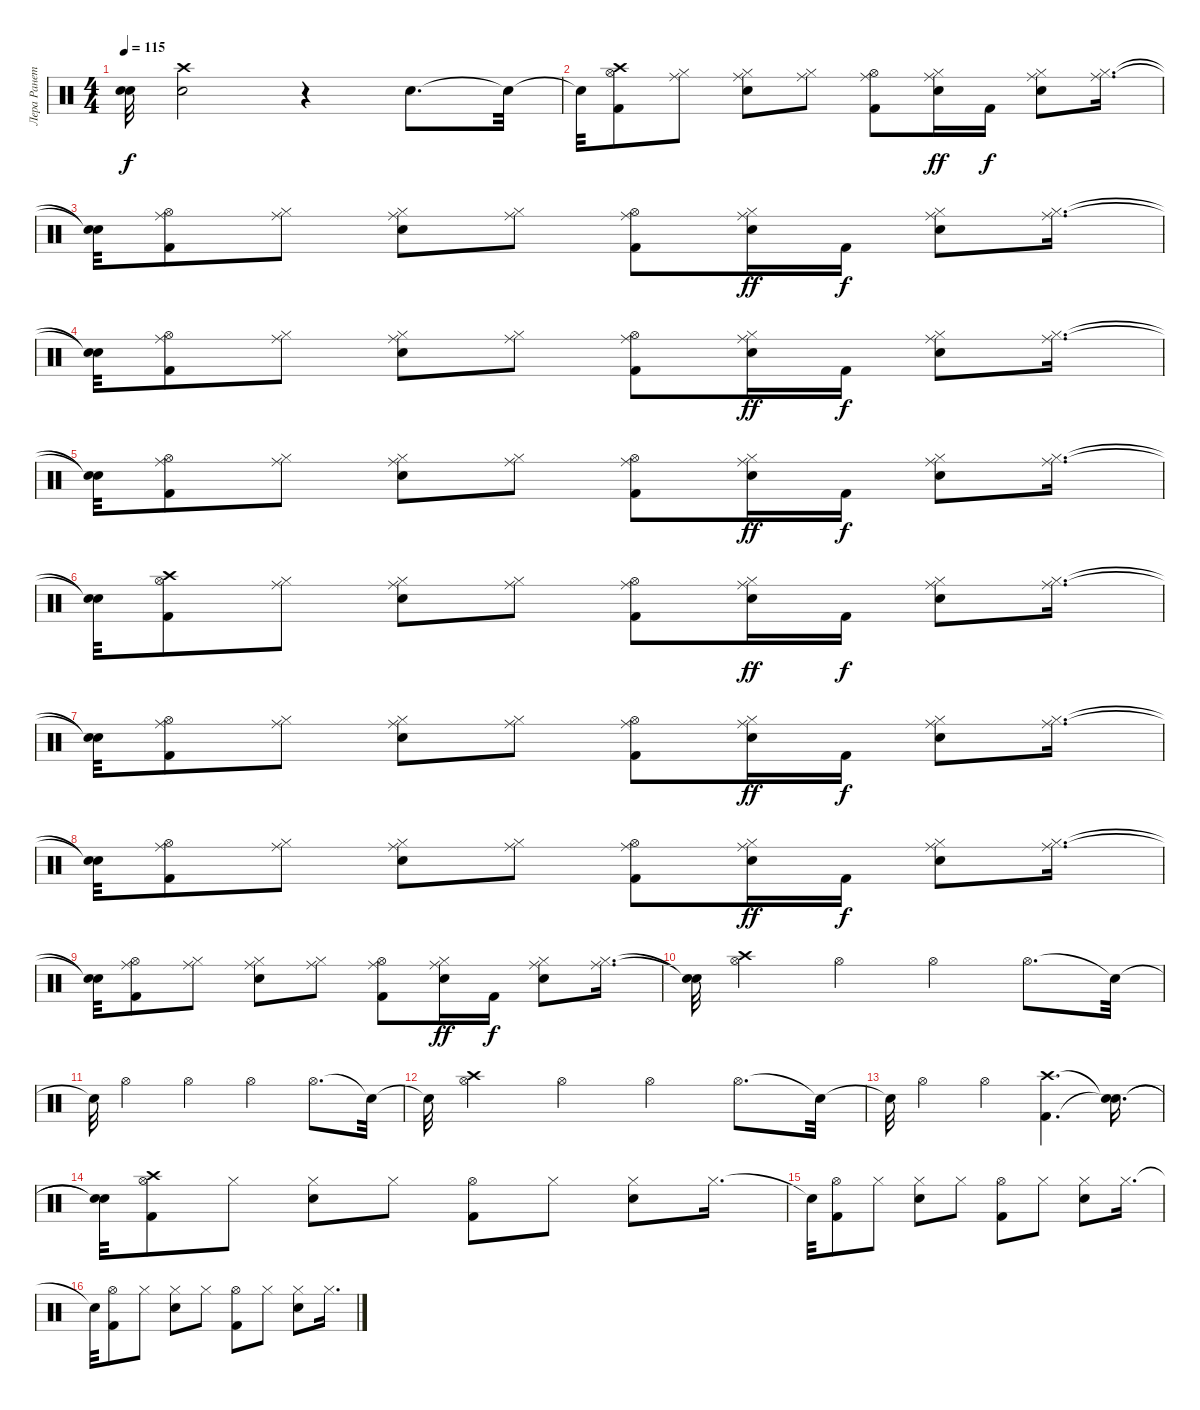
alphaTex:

\track ("Лера Ранетка" "Лера Ранет") {instrument percussion}
\staff {score}
\articulation defaults
\ts (4 4)
\tempo 115
\clef neutral
\ks c
("Snare (hit)"{t} "Snare (hit)"{t}).32{dy f} ("Electric Snare (hit)" "Crash high (hit)").2 r.4 "Electric Snare (hit)".8{d} "Snare (hit)"{t}.32 |
"Snare (hit)"{t}.32 ("Hi-Hat (open)" "Kick (hit) 2" "Crash high (hit)").8 ("Hi-Hat (closed)" "Ride (middle)").8 ("Hi-Hat (closed)" "Electric Snare (hit)" "Ride (middle)").8 ("Hi-Hat (closed)" "Ride (middle)").8 ("Hi-Hat (open)" "Kick (hit) 2" "Ride (middle)").8 ("Hi-Hat (closed)" "Electric Snare (hit)" "Ride (middle)").16{dy ff} "Kick (hit) 2".16{dy f} ("Hi-Hat (closed)" "Electric Snare (hit)" "Ride (middle)").8 ("Hi-Hat (closed)" "Ride (middle)").16{d} |
("Snare (hit)"{t} "Snare (hit)"{t}).32 ("Hi-Hat (open)" "Kick (hit) 2" "Ride (middle)").8 ("Hi-Hat (closed)" "Ride (middle)").8 ("Hi-Hat (closed)" "Electric Snare (hit)" "Ride (middle)").8 ("Hi-Hat (closed)" "Ride (middle)").8 ("Hi-Hat (open)" "Kick (hit) 2" "Ride (middle)").8 ("Hi-Hat (closed)" "Electric Snare (hit)" "Ride (middle)").16{dy ff} "Kick (hit) 2".16{dy f} ("Hi-Hat (closed)" "Electric Snare (hit)" "Ride (middle)").8 ("Hi-Hat (closed)" "Ride (middle)").16{d} |
("Snare (hit)"{t} "Snare (hit)"{t}).32 ("Hi-Hat (open)" "Kick (hit) 2" "Ride (middle)").8 ("Hi-Hat (closed)" "Ride (middle)").8 ("Hi-Hat (closed)" "Electric Snare (hit)" "Ride (middle)").8 ("Hi-Hat (closed)" "Ride (middle)").8 ("Hi-Hat (open)" "Kick (hit) 2" "Ride (middle)").8 ("Hi-Hat (closed)" "Electric Snare (hit)" "Ride (middle)").16{dy ff} "Kick (hit) 2".16{dy f} ("Hi-Hat (closed)" "Electric Snare (hit)" "Ride (middle)").8 ("Hi-Hat (closed)" "Ride (middle)").16{d} |
("Snare (hit)"{t} "Snare (hit)"{t}).32 ("Hi-Hat (open)" "Kick (hit) 2" "Ride (middle)").8 ("Hi-Hat (closed)" "Ride (middle)").8 ("Hi-Hat (closed)" "Electric Snare (hit)" "Ride (middle)").8 ("Hi-Hat (closed)" "Ride (middle)").8 ("Hi-Hat (open)" "Kick (hit) 2" "Ride (middle)").8 ("Hi-Hat (closed)" "Electric Snare (hit)" "Ride (middle)").16{dy ff} "Kick (hit) 2".16{dy f} ("Hi-Hat (closed)" "Electric Snare (hit)" "Ride (middle)").8 ("Hi-Hat (closed)" "Ride (middle)").16{d} |
("Snare (hit)"{t} "Snare (hit)"{t}).32 ("Hi-Hat (open)" "Kick (hit) 2" "Crash high (hit)").8 ("Hi-Hat (closed)" "Ride (middle)").8 ("Hi-Hat (closed)" "Electric Snare (hit)" "Ride (middle)").8 ("Hi-Hat (closed)" "Ride (middle)").8 ("Hi-Hat (open)" "Kick (hit) 2" "Ride (middle)").8 ("Hi-Hat (closed)" "Electric Snare (hit)" "Ride (middle)").16{dy ff} "Kick (hit) 2".16{dy f} ("Hi-Hat (closed)" "Electric Snare (hit)" "Ride (middle)").8 ("Hi-Hat (closed)" "Ride (middle)").16{d} |
("Snare (hit)"{t} "Snare (hit)"{t}).32 ("Hi-Hat (open)" "Kick (hit) 2" "Ride (middle)").8 ("Hi-Hat (closed)" "Ride (middle)").8 ("Hi-Hat (closed)" "Electric Snare (hit)" "Ride (middle)").8 ("Hi-Hat (closed)" "Ride (middle)").8 ("Hi-Hat (open)" "Kick (hit) 2" "Ride (middle)").8 ("Hi-Hat (closed)" "Electric Snare (hit)" "Ride (middle)").16{dy ff} "Kick (hit) 2".16{dy f} ("Hi-Hat (closed)" "Electric Snare (hit)" "Ride (middle)").8 ("Hi-Hat (closed)" "Ride (middle)").16{d} |
("Snare (hit)"{t} "Snare (hit)"{t}).32 ("Hi-Hat (open)" "Kick (hit) 2" "Ride (middle)").8 ("Hi-Hat (closed)" "Ride (middle)").8 ("Hi-Hat (closed)" "Electric Snare (hit)" "Ride (middle)").8 ("Hi-Hat (closed)" "Ride (middle)").8 ("Hi-Hat (open)" "Kick (hit) 2" "Ride (middle)").8 ("Hi-Hat (closed)" "Electric Snare (hit)" "Ride (middle)").16{dy ff} "Kick (hit) 2".16{dy f} ("Hi-Hat (closed)" "Electric Snare (hit)" "Ride (middle)").8 ("Hi-Hat (closed)" "Ride (middle)").16{d} |
("Snare (hit)"{t} "Snare (hit)"{t}).32 ("Hi-Hat (open)" "Kick (hit) 2" "Ride (middle)").8 ("Hi-Hat (closed)" "Ride (middle)").8 ("Hi-Hat (closed)" "Electric Snare (hit)" "Ride (middle)").8 ("Hi-Hat (closed)" "Ride (middle)").8 ("Hi-Hat (open)" "Kick (hit) 2" "Ride (middle)").8 ("Hi-Hat (closed)" "Electric Snare (hit)" "Ride (middle)").16{dy ff} "Kick (hit) 2".16{dy f} ("Hi-Hat (closed)" "Electric Snare (hit)" "Ride (middle)").8 ("Hi-Hat (closed)" "Ride (middle)").16{d} |
("Snare (hit)"{t} "Snare (hit)"{t}).32 ("Crash high (hit)" "Hi-Hat (open)").4 "Hi-Hat (open)".4 "Hi-Hat (open)".4 "Hi-Hat (open)".8{d} "Snare (hit)"{t}.32 |
"Snare (hit)"{t}.32 "Hi-Hat (open)".4 "Hi-Hat (open)".4 "Hi-Hat (open)".4 "Hi-Hat (open)".8{d} "Snare (hit)"{t}.32 |
"Snare (hit)"{t}.32 ("Crash high (hit)" "Hi-Hat (open)").4 "Hi-Hat (open)".4 "Hi-Hat (open)".4 "Hi-Hat (open)".8{d} "Snare (hit)"{t}.32 |
"Snare (hit)"{t}.32 "Hi-Hat (open)".4 "Hi-Hat (open)".4 ("Crash high (hit)" "Kick (hit) 2").4{d} ("Snare (hit)"{t} "Snare (hit)"{t}).16{d} |
("Snare (hit)"{t} "Snare (hit)"{t}).32 ("Hi-Hat (open)" "Kick (hit) 2" "Crash high (hit)").8 "Hi-Hat (closed)".8 ("Hi-Hat (closed)" "Electric Snare (hit)").8 "Hi-Hat (closed)".8 ("Hi-Hat (open)" "Kick (hit) 2").8 "Hi-Hat (closed)".8 ("Hi-Hat (closed)" "Electric Snare (hit)").8 "Hi-Hat (closed)".16{d} |
"Snare (hit)"{t}.32 ("Hi-Hat (open)" "Kick (hit) 2").8 "Hi-Hat (closed)".8 ("Hi-Hat (closed)" "Electric Snare (hit)").8 "Hi-Hat (closed)".8 ("Hi-Hat (open)" "Kick (hit) 2").8 "Hi-Hat (closed)".8 ("Hi-Hat (closed)" "Electric Snare (hit)").8 "Hi-Hat (closed)".16{d} |
"Snare (hit)"{t}.32 ("Hi-Hat (open)" "Kick (hit) 2").8 "Hi-Hat (closed)".8 ("Hi-Hat (closed)" "Electric Snare (hit)").8 "Hi-Hat (closed)".8 ("Hi-Hat (open)" "Kick (hit) 2").8 "Hi-Hat (closed)".8 ("Hi-Hat (closed)" "Electric Snare (hit)").8 "Hi-Hat (closed)".16{d}
